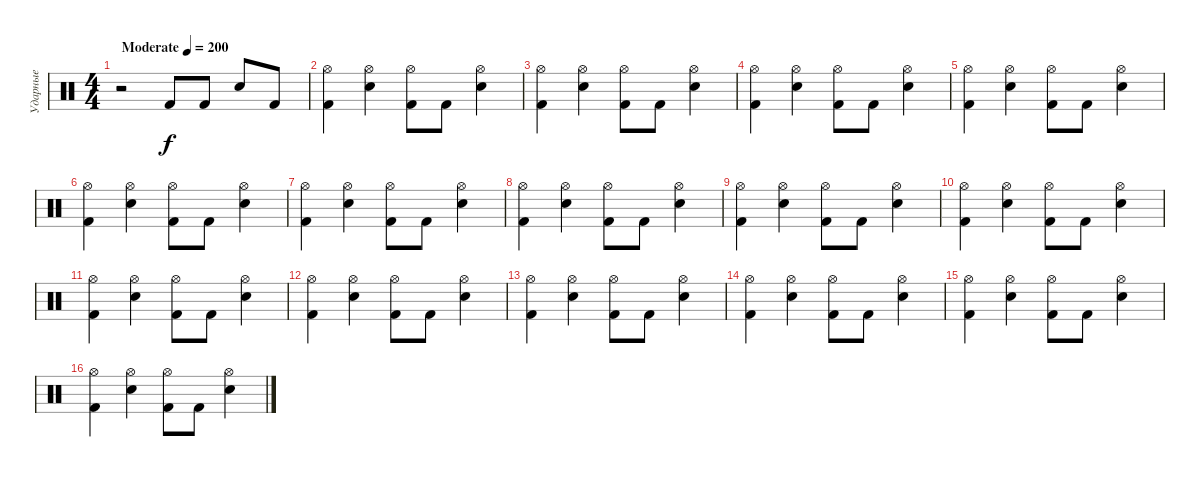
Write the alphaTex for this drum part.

\track ("Ударные" "Ударные") {instrument percussion}
\staff {score}
\articulation defaults
\ts (4 4)
\tempo (200 "Moderate")
\clef neutral
\ks c
r.2{dy f} "Kick (hit) 2".8 "Kick (hit) 2".8 "Snare (hit) 2".8 "Kick (hit) 2".8 |
("Hi-Hat (open)" "Kick (hit) 2").4 ("Hi-Hat (open)" "Snare (hit) 2").4 ("Hi-Hat (open)" "Kick (hit) 2").8 "Kick (hit) 2".8 ("Hi-Hat (open)" "Snare (hit) 2").4 |
("Hi-Hat (open)" "Kick (hit) 2").4 ("Hi-Hat (open)" "Snare (hit) 2").4 ("Hi-Hat (open)" "Kick (hit) 2").8 "Kick (hit) 2".8 ("Hi-Hat (open)" "Snare (hit) 2").4 |
("Hi-Hat (open)" "Kick (hit) 2").4 ("Hi-Hat (open)" "Snare (hit) 2").4 ("Hi-Hat (open)" "Kick (hit) 2").8 "Kick (hit) 2".8 ("Hi-Hat (open)" "Snare (hit) 2").4 |
("Hi-Hat (open)" "Kick (hit) 2").4 ("Hi-Hat (open)" "Snare (hit) 2").4 ("Hi-Hat (open)" "Kick (hit) 2").8 "Kick (hit) 2".8 ("Hi-Hat (open)" "Snare (hit) 2").4 |
("Hi-Hat (open)" "Kick (hit) 2").4 ("Hi-Hat (open)" "Snare (hit) 2").4 ("Hi-Hat (open)" "Kick (hit) 2").8 "Kick (hit) 2".8 ("Hi-Hat (open)" "Snare (hit) 2").4 |
("Hi-Hat (open)" "Kick (hit) 2").4 ("Hi-Hat (open)" "Snare (hit) 2").4 ("Hi-Hat (open)" "Kick (hit) 2").8 "Kick (hit) 2".8 ("Hi-Hat (open)" "Snare (hit) 2").4 |
("Hi-Hat (open)" "Kick (hit) 2").4 ("Hi-Hat (open)" "Snare (hit) 2").4 ("Hi-Hat (open)" "Kick (hit) 2").8 "Kick (hit) 2".8 ("Hi-Hat (open)" "Snare (hit) 2").4 |
("Hi-Hat (open)" "Kick (hit) 2").4 ("Hi-Hat (open)" "Snare (hit) 2").4 ("Hi-Hat (open)" "Kick (hit) 2").8 "Kick (hit) 2".8 ("Hi-Hat (open)" "Snare (hit) 2").4 |
("Hi-Hat (open)" "Kick (hit) 2").4 ("Hi-Hat (open)" "Snare (hit) 2").4 ("Hi-Hat (open)" "Kick (hit) 2").8 "Kick (hit) 2".8 ("Hi-Hat (open)" "Snare (hit) 2").4 |
("Hi-Hat (open)" "Kick (hit) 2").4 ("Hi-Hat (open)" "Snare (hit) 2").4 ("Hi-Hat (open)" "Kick (hit) 2").8 "Kick (hit) 2".8 ("Hi-Hat (open)" "Snare (hit) 2").4 |
("Hi-Hat (open)" "Kick (hit) 2").4 ("Hi-Hat (open)" "Snare (hit) 2").4 ("Hi-Hat (open)" "Kick (hit) 2").8 "Kick (hit) 2".8 ("Hi-Hat (open)" "Snare (hit) 2").4 |
("Hi-Hat (open)" "Kick (hit) 2").4 ("Hi-Hat (open)" "Snare (hit) 2").4 ("Hi-Hat (open)" "Kick (hit) 2").8 "Kick (hit) 2".8 ("Hi-Hat (open)" "Snare (hit) 2").4 |
("Hi-Hat (open)" "Kick (hit) 2").4 ("Hi-Hat (open)" "Snare (hit) 2").4 ("Hi-Hat (open)" "Kick (hit) 2").8 "Kick (hit) 2".8 ("Hi-Hat (open)" "Snare (hit) 2").4 |
("Hi-Hat (open)" "Kick (hit) 2").4 ("Hi-Hat (open)" "Snare (hit) 2").4 ("Hi-Hat (open)" "Kick (hit) 2").8 "Kick (hit) 2".8 ("Hi-Hat (open)" "Snare (hit) 2").4 |
("Hi-Hat (open)" "Kick (hit) 2").4 ("Hi-Hat (open)" "Snare (hit) 2").4 ("Hi-Hat (open)" "Kick (hit) 2").8 "Kick (hit) 2".8 ("Hi-Hat (open)" "Snare (hit) 2").4
